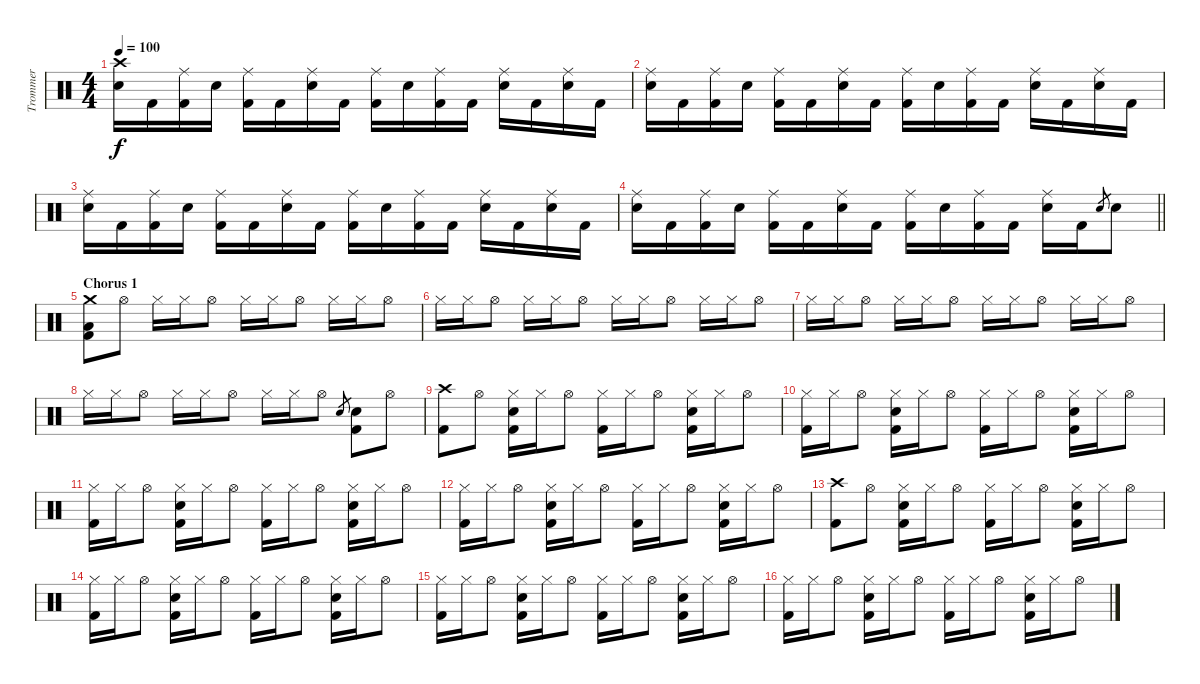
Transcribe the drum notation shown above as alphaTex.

\track ("Trommer" "Trommer") {instrument percussion}
\staff {score}
\articulation defaults
\ts (4 4)
\tempo 100
\clef neutral
\ks c
("Crash high (hit)" "Snare (hit) 2").16{dy f} "Kick (hit) 2".16 ("Ride (middle)" "Kick (hit) 2").16 "Snare (hit) 2".16 ("Ride (middle)" "Kick (hit) 2").16 "Kick (hit) 2".16 ("Ride (middle)" "Snare (hit) 2").16 "Kick (hit) 2".16 ("Ride (middle)" "Kick (hit) 2").16 "Snare (hit) 2".16 ("Ride (middle)" "Kick (hit) 2").16 "Kick (hit) 2".16 ("Ride (middle)" "Snare (hit) 2").16 "Kick (hit) 2".16 ("Ride (middle)" "Snare (hit) 2").16 "Kick (hit) 2".16 |
("Ride (middle)" "Snare (hit) 2").16 "Kick (hit) 2".16 ("Ride (middle)" "Kick (hit) 2").16 "Snare (hit) 2".16 ("Ride (middle)" "Kick (hit) 2").16 "Kick (hit) 2".16 ("Ride (middle)" "Snare (hit) 2").16 "Kick (hit) 2".16 ("Ride (middle)" "Kick (hit) 2").16 "Snare (hit) 2".16 ("Ride (middle)" "Kick (hit) 2").16 "Kick (hit) 2".16 ("Ride (middle)" "Snare (hit) 2").16 "Kick (hit) 2".16 ("Ride (middle)" "Snare (hit) 2").16 "Kick (hit) 2".16 |
("Ride (middle)" "Snare (hit) 2").16 "Kick (hit) 2".16 ("Ride (middle)" "Kick (hit) 2").16 "Snare (hit) 2".16 ("Ride (middle)" "Kick (hit) 2").16 "Kick (hit) 2".16 ("Ride (middle)" "Snare (hit) 2").16 "Kick (hit) 2".16 ("Ride (middle)" "Kick (hit) 2").16 "Snare (hit) 2".16 ("Ride (middle)" "Kick (hit) 2").16 "Kick (hit) 2".16 ("Ride (middle)" "Snare (hit) 2").16 "Kick (hit) 2".16 ("Ride (middle)" "Snare (hit) 2").16 "Kick (hit) 2".16 |
\barLineRight lightlight
("Ride (middle)" "Snare (hit) 2").16 "Kick (hit) 2".16 ("Ride (middle)" "Kick (hit) 2").16 "Snare (hit) 2".16 ("Ride (middle)" "Kick (hit) 2").16 "Kick (hit) 2".16 ("Ride (middle)" "Snare (hit) 2").16 "Kick (hit) 2".16 ("Ride (middle)" "Kick (hit) 2").16 "Snare (hit) 2".16 ("Ride (middle)" "Kick (hit) 2").16 "Kick (hit) 2".16 ("Ride (middle)" "Snare (hit) 2").16 "Kick (hit) 2".16 "Snare (hit) 2".8{gr} "Snare (hit) 2".8 |
\section ("" "Chorus 1")
("Crash medium (hit)" "Low Floor Tom (hit)" "Kick (hit) 2").8 "Hi-Hat (open)".8 "Hi-Hat (closed)".16 "Hi-Hat (closed)".16 "Hi-Hat (open)".8 "Hi-Hat (closed)".16 "Hi-Hat (closed)".16 "Hi-Hat (open)".8 "Hi-Hat (closed)".16 "Hi-Hat (closed)".16 "Hi-Hat (open)".8 |
"Hi-Hat (closed)".16 "Hi-Hat (closed)".16 "Hi-Hat (open)".8 "Hi-Hat (closed)".16 "Hi-Hat (closed)".16 "Hi-Hat (open)".8 "Hi-Hat (closed)".16 "Hi-Hat (closed)".16 "Hi-Hat (open)".8 "Hi-Hat (closed)".16 "Hi-Hat (closed)".16 "Hi-Hat (open)".8 |
"Hi-Hat (closed)".16 "Hi-Hat (closed)".16 "Hi-Hat (open)".8 "Hi-Hat (closed)".16 "Hi-Hat (closed)".16 "Hi-Hat (open)".8 "Hi-Hat (closed)".16 "Hi-Hat (closed)".16 "Hi-Hat (open)".8 "Hi-Hat (closed)".16 "Hi-Hat (closed)".16 "Hi-Hat (open)".8 |
"Hi-Hat (closed)".16 "Hi-Hat (closed)".16 "Hi-Hat (open)".8 "Hi-Hat (closed)".16 "Hi-Hat (closed)".16 "Hi-Hat (open)".8 "Hi-Hat (closed)".16 "Hi-Hat (closed)".16 "Hi-Hat (open)".8 "Snare (hit) 2".8{gr} ("Snare (hit) 2" "Kick (hit) 2").8 "Hi-Hat (open)".8 |
("Crash high (hit)" "Kick (hit) 2").8 "Hi-Hat (open)".8 ("Hi-Hat (closed)" "Snare (hit) 2" "Kick (hit) 2").16 "Hi-Hat (closed)".16 "Hi-Hat (open)".8 ("Hi-Hat (closed)" "Kick (hit) 2").16 "Hi-Hat (closed)".16 "Hi-Hat (open)".8 ("Hi-Hat (closed)" "Snare (hit) 2" "Kick (hit) 2").16 "Hi-Hat (closed)".16 "Hi-Hat (open)".8 |
("Hi-Hat (closed)" "Kick (hit) 2").16 "Hi-Hat (closed)".16 "Hi-Hat (open)".8 ("Hi-Hat (closed)" "Snare (hit) 2" "Kick (hit) 2").16 "Hi-Hat (closed)".16 "Hi-Hat (open)".8 ("Hi-Hat (closed)" "Kick (hit) 2").16 "Hi-Hat (closed)".16 "Hi-Hat (open)".8 ("Hi-Hat (closed)" "Snare (hit) 2" "Kick (hit) 2").16 "Hi-Hat (closed)".16 "Hi-Hat (open)".8 |
("Hi-Hat (closed)" "Kick (hit) 2").16 "Hi-Hat (closed)".16 "Hi-Hat (open)".8 ("Hi-Hat (closed)" "Snare (hit) 2" "Kick (hit) 2").16 "Hi-Hat (closed)".16 "Hi-Hat (open)".8 ("Hi-Hat (closed)" "Kick (hit) 2").16 "Hi-Hat (closed)".16 "Hi-Hat (open)".8 ("Hi-Hat (closed)" "Snare (hit) 2" "Kick (hit) 2").16 "Hi-Hat (closed)".16 "Hi-Hat (open)".8 |
("Hi-Hat (closed)" "Kick (hit) 2").16 "Hi-Hat (closed)".16 "Hi-Hat (open)".8 ("Hi-Hat (closed)" "Snare (hit) 2" "Kick (hit) 2").16 "Hi-Hat (closed)".16 "Hi-Hat (open)".8 ("Hi-Hat (closed)" "Kick (hit) 2").16 "Hi-Hat (closed)".16 "Hi-Hat (open)".8 ("Hi-Hat (closed)" "Snare (hit) 2" "Kick (hit) 2").16 "Hi-Hat (closed)".16 "Hi-Hat (open)".8 |
("Crash high (hit)" "Kick (hit) 2").8 "Hi-Hat (open)".8 ("Hi-Hat (closed)" "Snare (hit) 2" "Kick (hit) 2").16 "Hi-Hat (closed)".16 "Hi-Hat (open)".8 ("Hi-Hat (closed)" "Kick (hit) 2").16 "Hi-Hat (closed)".16 "Hi-Hat (open)".8 ("Hi-Hat (closed)" "Snare (hit) 2" "Kick (hit) 2").16 "Hi-Hat (closed)".16 "Hi-Hat (open)".8 |
("Hi-Hat (closed)" "Kick (hit) 2").16 "Hi-Hat (closed)".16 "Hi-Hat (open)".8 ("Hi-Hat (closed)" "Snare (hit) 2" "Kick (hit) 2").16 "Hi-Hat (closed)".16 "Hi-Hat (open)".8 ("Hi-Hat (closed)" "Kick (hit) 2").16 "Hi-Hat (closed)".16 "Hi-Hat (open)".8 ("Hi-Hat (closed)" "Snare (hit) 2" "Kick (hit) 2").16 "Hi-Hat (closed)".16 "Hi-Hat (open)".8 |
("Hi-Hat (closed)" "Kick (hit) 2").16 "Hi-Hat (closed)".16 "Hi-Hat (open)".8 ("Hi-Hat (closed)" "Snare (hit) 2" "Kick (hit) 2").16 "Hi-Hat (closed)".16 "Hi-Hat (open)".8 ("Hi-Hat (closed)" "Kick (hit) 2").16 "Hi-Hat (closed)".16 "Hi-Hat (open)".8 ("Hi-Hat (closed)" "Snare (hit) 2" "Kick (hit) 2").16 "Hi-Hat (closed)".16 "Hi-Hat (open)".8 |
("Hi-Hat (closed)" "Kick (hit) 2").16 "Hi-Hat (closed)".16 "Hi-Hat (open)".8 ("Hi-Hat (closed)" "Snare (hit) 2" "Kick (hit) 2").16 "Hi-Hat (closed)".16 "Hi-Hat (open)".8 ("Hi-Hat (closed)" "Kick (hit) 2").16 "Hi-Hat (closed)".16 "Hi-Hat (open)".8 ("Hi-Hat (closed)" "Snare (hit) 2" "Kick (hit) 2").16 "Hi-Hat (closed)".16 "Hi-Hat (open)".8
